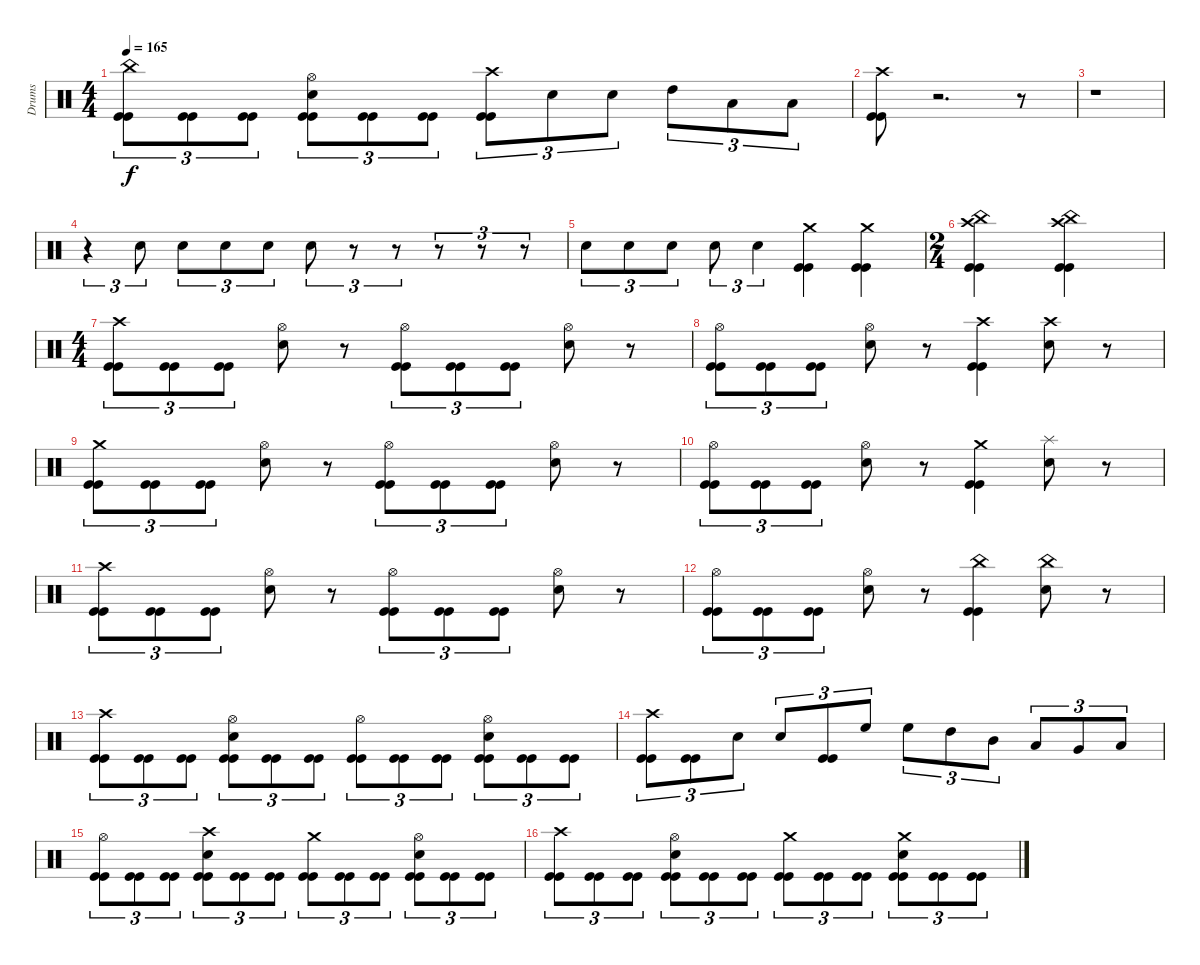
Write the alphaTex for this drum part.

\track ("Drums" "Drums") {instrument percussion}
\staff {score}
\articulation defaults
\ts (4 4)
\tempo 165
\clef neutral
\ks c
("Kick (hit)" "Kick (hit)" "China (hit)").8{tu (3 2) dy f} ("Kick (hit)" "Kick (hit)").8{tu (3 2)} ("Kick (hit)" "Kick (hit)").8{tu (3 2)} ("Kick (hit)" "Kick (hit)" "Snare (hit) 2" "Hi-Hat (open)").8{tu (3 2)} ("Kick (hit)" "Kick (hit)").8{tu (3 2)} ("Kick (hit)" "Kick (hit)").8{tu (3 2)} ("Kick (hit)" "Kick (hit)" "Crash high (hit)").8{tu (3 2)} "Snare (hit) 2".8{tu (3 2)} "Snare (hit) 2".8{tu (3 2)} "High Tom (hit)".8{tu (3 2)} "Low Tom (hit)".8{tu (3 2)} "Low Floor Tom (hit)".8{tu (3 2)} |
("Kick (hit)" "Kick (hit)" "Crash high (hit)").8 r.2{d} r.8 |
r.1 |
r.4{tu (3 2)} "Snare (hit) 2".8{tu (3 2)} "Snare (hit) 2".8{tu (3 2)} "Snare (hit) 2".8{tu (3 2)} "Snare (hit) 2".8{tu (3 2)} "Snare (hit) 2".8{tu (3 2)} r.8{tu (3 2)} r.8{tu (3 2)} r.8{tu (3 2)} r.8{tu (3 2)} r.8{tu (3 2)} |
"Snare (hit) 2".8{tu (3 2)} "Snare (hit) 2".8{tu (3 2)} "Snare (hit) 2".8{tu (3 2)} "Snare (hit) 2".8{tu (3 2)} "Snare (hit) 2".4{tu (3 2)} ("Kick (hit)" "Kick (hit)" "Crash medium (hit)").4 ("Kick (hit)" "Kick (hit)" "Crash medium (hit)").4 |
\ts (2 4)
("Kick (hit)" "Kick (hit)" "Crash high (hit)" "China (hit)").4 ("Kick (hit)" "Kick (hit)" "Crash high (hit)" "China (hit)").4 |
\ts (4 4)
("Kick (hit)" "Kick (hit)" "Crash high (hit)").8{tu (3 2)} ("Kick (hit)" "Kick (hit)").8{tu (3 2)} ("Kick (hit)" "Kick (hit)").8{tu (3 2)} ("Snare (hit) 2" "Hi-Hat (open)").8 r.8 ("Kick (hit)" "Kick (hit)" "Hi-Hat (open)").8{tu (3 2)} ("Kick (hit)" "Kick (hit)").8{tu (3 2)} ("Kick (hit)" "Kick (hit)").8{tu (3 2)} ("Snare (hit) 2" "Hi-Hat (open)").8 r.8 |
("Kick (hit)" "Kick (hit)" "Hi-Hat (open)").8{tu (3 2)} ("Kick (hit)" "Kick (hit)").8{tu (3 2)} ("Kick (hit)" "Kick (hit)").8{tu (3 2)} ("Snare (hit) 2" "Hi-Hat (open)").8 r.8 ("Kick (hit)" "Kick (hit)" "Crash high (hit)").4 ("Snare (hit) 2" "Crash high (hit)").8 r.8 |
("Kick (hit)" "Kick (hit)" "Crash medium (hit)").8{tu (3 2)} ("Kick (hit)" "Kick (hit)").8{tu (3 2)} ("Kick (hit)" "Kick (hit)").8{tu (3 2)} ("Snare (hit) 2" "Hi-Hat (open)").8 r.8 ("Kick (hit)" "Kick (hit)" "Hi-Hat (open)").8{tu (3 2)} ("Kick (hit)" "Kick (hit)").8{tu (3 2)} ("Kick (hit)" "Kick (hit)").8{tu (3 2)} ("Snare (hit) 2" "Hi-Hat (open)").8 r.8 |
("Kick (hit)" "Kick (hit)" "Hi-Hat (open)").8{tu (3 2)} ("Kick (hit)" "Kick (hit)").8{tu (3 2)} ("Kick (hit)" "Kick (hit)").8{tu (3 2)} ("Snare (hit) 2" "Hi-Hat (open)").8 r.8 ("Kick (hit)" "Kick (hit)" "Crash medium (hit)").4 ("Snare (hit) 2" "Splash (hit)").8 r.8 |
("Kick (hit)" "Kick (hit)" "Crash high (hit)").8{tu (3 2)} ("Kick (hit)" "Kick (hit)").8{tu (3 2)} ("Kick (hit)" "Kick (hit)").8{tu (3 2)} ("Snare (hit) 2" "Hi-Hat (open)").8 r.8 ("Kick (hit)" "Kick (hit)" "Hi-Hat (open)").8{tu (3 2)} ("Kick (hit)" "Kick (hit)").8{tu (3 2)} ("Kick (hit)" "Kick (hit)").8{tu (3 2)} ("Snare (hit) 2" "Hi-Hat (open)").8 r.8 |
("Kick (hit)" "Kick (hit)" "Hi-Hat (open)").8{tu (3 2)} ("Kick (hit)" "Kick (hit)").8{tu (3 2)} ("Kick (hit)" "Kick (hit)").8{tu (3 2)} ("Snare (hit) 2" "Hi-Hat (open)").8 r.8 ("Kick (hit)" "Kick (hit)" "China (hit)").4 ("Snare (hit) 2" "China (hit)").8 r.8 |
("Kick (hit)" "Kick (hit)" "Crash high (hit)").8{tu (3 2)} ("Kick (hit)" "Kick (hit)").8{tu (3 2)} ("Kick (hit)" "Kick (hit)").8{tu (3 2)} ("Kick (hit)" "Kick (hit)" "Snare (hit) 2" "Hi-Hat (open)").8{tu (3 2)} ("Kick (hit)" "Kick (hit)").8{tu (3 2)} ("Kick (hit)" "Kick (hit)").8{tu (3 2)} ("Kick (hit)" "Kick (hit)" "Hi-Hat (open)").8{tu (3 2)} ("Kick (hit)" "Kick (hit)").8{tu (3 2)} ("Kick (hit)" "Kick (hit)").8{tu (3 2)} ("Kick (hit)" "Kick (hit)" "Snare (hit) 2" "Hi-Hat (open)").8{tu (3 2)} ("Kick (hit)" "Kick (hit)").8{tu (3 2)} ("Kick (hit)" "Kick (hit)").8{tu (3 2)} |
("Kick (hit)" "Kick (hit)" "Crash high (hit)").8{tu (3 2)} ("Kick (hit)" "Kick (hit)").8{tu (3 2)} "Snare (hit) 2".8{tu (3 2)} "Snare (hit) 2".8{tu (3 2)} ("Kick (hit)" "Kick (hit)").8{tu (3 2)} "High Floor Tom (hit)".8{tu (3 2)} "High Floor Tom (hit)".8{tu (3 2)} "High Tom (hit)".8{tu (3 2)} "Mid Tom (hit)".8{tu (3 2)} "Low Tom (hit)".8{tu (3 2)} "Very Low Tom (hit)".8{tu (3 2)} "Low Floor Tom (hit)".8{tu (3 2)} |
("Kick (hit)" "Kick (hit)" "Hi-Hat (open)").8{tu (3 2)} ("Kick (hit)" "Kick (hit)").8{tu (3 2)} ("Kick (hit)" "Kick (hit)").8{tu (3 2)} ("Kick (hit)" "Kick (hit)" "Snare (hit) 2" "Crash high (hit)").8{tu (3 2)} ("Kick (hit)" "Kick (hit)").8{tu (3 2)} ("Kick (hit)" "Kick (hit)").8{tu (3 2)} ("Kick (hit)" "Kick (hit)" "Crash medium (hit)").8{tu (3 2)} ("Kick (hit)" "Kick (hit)").8{tu (3 2)} ("Kick (hit)" "Kick (hit)").8{tu (3 2)} ("Kick (hit)" "Kick (hit)" "Snare (hit) 2" "Hi-Hat (open)").8{tu (3 2)} ("Kick (hit)" "Kick (hit)").8{tu (3 2)} ("Kick (hit)" "Kick (hit)").8{tu (3 2)} |
("Kick (hit)" "Kick (hit)" "Crash high (hit)").8{tu (3 2)} ("Kick (hit)" "Kick (hit)").8{tu (3 2)} ("Kick (hit)" "Kick (hit)").8{tu (3 2)} ("Kick (hit)" "Kick (hit)" "Snare (hit) 2" "Hi-Hat (open)").8{tu (3 2)} ("Kick (hit)" "Kick (hit)").8{tu (3 2)} ("Kick (hit)" "Kick (hit)").8{tu (3 2)} ("Kick (hit)" "Kick (hit)" "Crash medium (hit)").8{tu (3 2)} ("Kick (hit)" "Kick (hit)").8{tu (3 2)} ("Kick (hit)" "Kick (hit)").8{tu (3 2)} ("Kick (hit)" "Kick (hit)" "Snare (hit) 2" "Crash medium (hit)").8{tu (3 2)} ("Kick (hit)" "Kick (hit)").8{tu (3 2)} ("Kick (hit)" "Kick (hit)").8{tu (3 2)}
